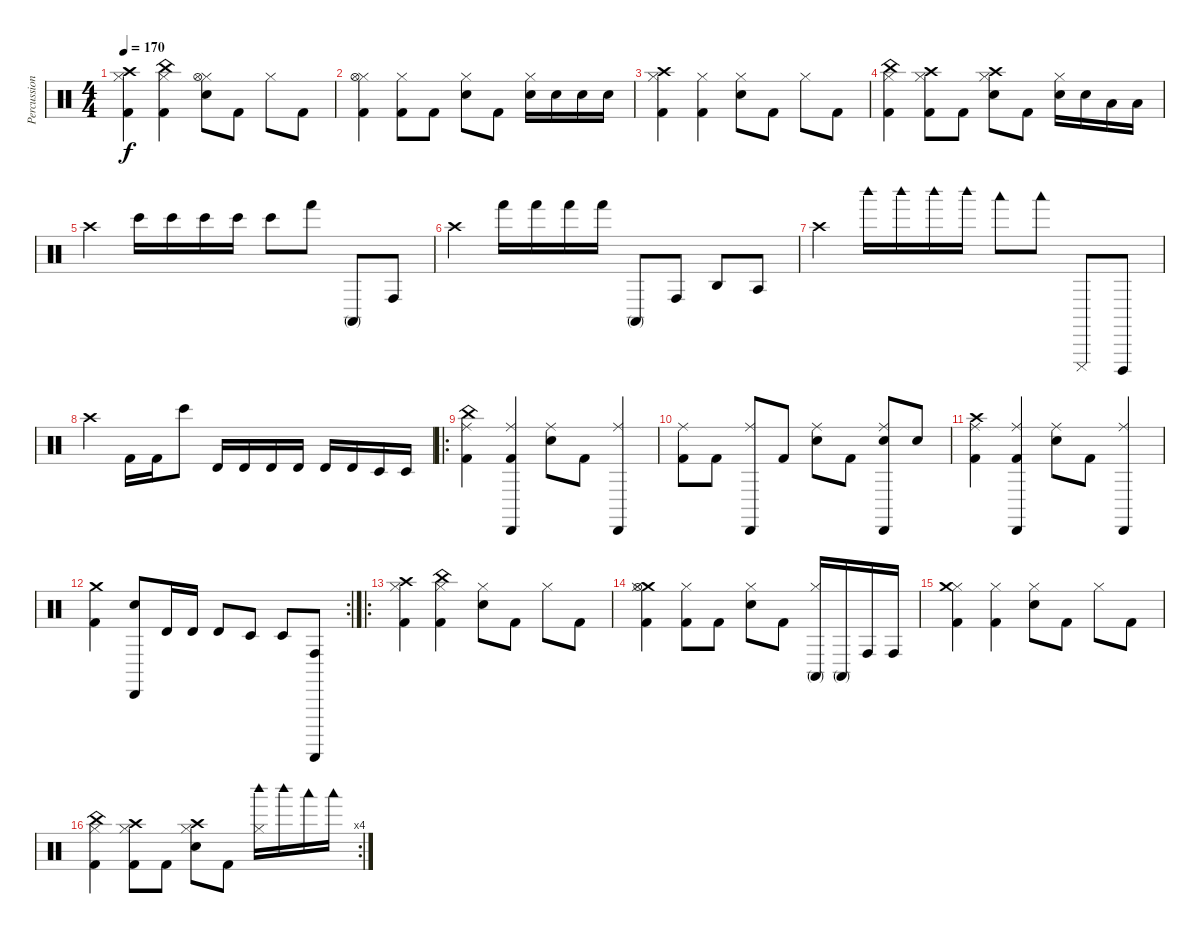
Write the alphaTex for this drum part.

\track ("Percussion" "Percussion") {instrument percussion}
\staff {score}
\articulation defaults
\ts (4 4)
\tempo 170
\clef neutral
\ks c
("Kick (hit) 2" "Hi-Hat (closed)" "Crash high (hit)").4{dy f} ("Kick (hit) 2" "Hi-Hat (closed)" "China (hit)").4 ("Snare (hit) 2" "Hi-Hat (closed)" "Hi-Hat (open)").8 "Kick (hit) 2".8 "Hi-Hat (closed)".8 "Kick (hit) 2".8 |
("Kick (hit) 2" "Hi-Hat (closed)" "Hi-Hat (open)").4 ("Kick (hit) 2" "Hi-Hat (closed)").8 "Kick (hit) 2".8 ("Snare (hit) 2" "Hi-Hat (closed)").8 "Kick (hit) 2".8 ("Snare (hit) 2" "Hi-Hat (closed)").16 "Snare (hit) 2".16 "Snare (hit) 2".16 "Snare (hit) 2".16 |
("Kick (hit) 2" "Hi-Hat (closed)" "Crash high (hit)").4 ("Kick (hit) 2" "Hi-Hat (closed)").4 ("Snare (hit) 2" "Hi-Hat (closed)").8 "Kick (hit) 2".8 "Hi-Hat (closed)".8 "Kick (hit) 2".8 |
("Kick (hit) 2" "Hi-Hat (closed)" "China (hit)").4 ("Kick (hit) 2" "Hi-Hat (closed)" "Crash high (hit)").8 "Kick (hit) 2".8 ("Snare (hit) 2" "Hi-Hat (closed)" "Crash high (hit)").8 "Kick (hit) 2".8 ("Snare (hit) 2" "Hi-Hat (closed)").16 "Snare (hit) 2".16 "Low Floor Tom (hit)".16 "Low Floor Tom (hit)".16 |
"Crash high (hit)".4 "Bongo High (hit)".16 "Bongo High (hit)".16 "Bongo High (hit)".16 "Bongo High (hit)".16 "Bongo High (hit)".8 "Hand (hit)".8 "Conga high (mute)".8 "Conga high (hit)".8 |
"Crash high (hit)".4 "Hand (hit)".16 "Hand (hit)".16 "Hand (hit)".16 "Hand (hit)".16 "Conga high (mute)".8 "Conga high (hit)".8 "Agogo high (hit)".8 "Agogo tow (hit)".8 |
"Crash high (hit)".4 "Woodblock high (hit)".16 "Woodblock high (hit)".16 "Woodblock high (hit)".16 "Woodblock high (hit)".16 "Woodblock low (hit)".8 "Woodblock low (hit)".8 "Cuica (mute)".8 "Cuica (open)".8 |
"Crash high (hit)".4 "Kick (hit) 2".16 "Kick (hit) 2".16 "Bongo High (hit)".8 "Timbale high (hit)".16 "Timbale high (hit)".16 "Timbale high (hit)".16 "Timbale high (hit)".16 "Timbale high (hit)".16 "Timbale high (hit)".16 "Timbale low (hit)".16 "Timbale low (hit)".16 |
\ro
("China (hit)" "Ride (middle)" "Kick (hit) 2").4 ("Cabasa (hit)" "Ride (middle)" "Kick (hit) 2").4 ("Ride (middle)" "Snare (hit) 2").8 "Kick (hit) 2".8 ("Cabasa (hit)" "Ride (middle)").4 |
("Ride (middle)" "Kick (hit) 2").8 "Kick (hit) 2".8 ("Cabasa (hit)" "Ride (middle)").8 "Kick (hit) 2".8 ("Ride (middle)" "Snare (hit) 2").8 "Kick (hit) 2".8 ("Cabasa (hit)" "Ride (middle)" "Snare (hit) 2").8 "Snare (hit) 2".8 |
("Crash high (hit)" "Ride (middle)" "Kick (hit) 2").4 ("Cabasa (hit)" "Ride (middle)" "Kick (hit) 2").4 ("Ride (middle)" "Snare (hit) 2").8 "Kick (hit) 2".8 ("Cabasa (hit)" "Ride (middle)").4 |
\rc 2
("Crash medium (hit)" "Kick (hit) 2").4 ("Snare (hit) 2" "Cabasa (hit)").8 "Timbale high (hit)".16 "Timbale high (hit)".16 "Timbale high (hit)".8 "Timbale low (hit)".8 "Timbale low (hit)".8 ("Guiro (scrap-return)" "Conga high (hit)").8 |
\ro
("Kick (hit) 2" "Hi-Hat (closed)" "Crash high (hit)").4 ("Kick (hit) 2" "Hi-Hat (closed)" "China (hit)").4 ("Snare (hit) 2" "Hi-Hat (closed)").8 "Kick (hit) 2".8 "Hi-Hat (closed)".8 "Kick (hit) 2".8 |
("Kick (hit) 2" "Crash medium (hit)" "Hi-Hat (closed)" "Hi-Hat (open)").4 ("Kick (hit) 2" "Hi-Hat (closed)").8 "Kick (hit) 2".8 ("Snare (hit) 2" "Hi-Hat (closed)").8 "Kick (hit) 2".8 ("Conga high (mute)" "Hi-Hat (closed)").16 "Conga high (mute)".16 "Conga high (hit)".16 "Conga high (hit)".16 |
("Kick (hit) 2" "Hi-Hat (closed)" "Crash medium (hit)").4 ("Kick (hit) 2" "Hi-Hat (closed)").4 ("Snare (hit) 2" "Hi-Hat (closed)").8 "Kick (hit) 2".8 "Hi-Hat (closed)".8 "Kick (hit) 2".8 |
\rc 4
("Kick (hit) 2" "Hi-Hat (closed)" "China (hit)").4 ("Kick (hit) 2" "Hi-Hat (closed)" "Crash high (hit)").8 "Kick (hit) 2".8 ("Snare (hit) 2" "Hi-Hat (closed)" "Crash high (hit)").8 "Kick (hit) 2".8 ("Woodblock high (hit)" "Hi-Hat (closed)").16 "Woodblock high (hit)".16 "Woodblock low (hit)".16 "Woodblock low (hit)".16
